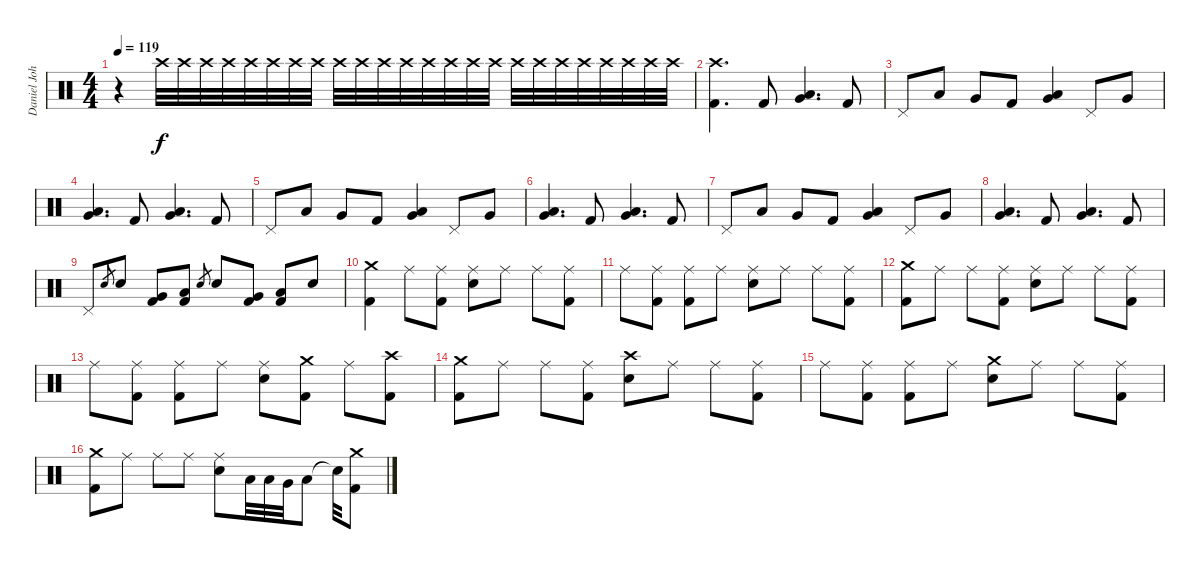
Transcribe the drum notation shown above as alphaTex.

\track ("Daniel John Erlandson (Drums)" "Daniel Joh") {instrument percussion}
\staff {score}
\articulation defaults
\ts (4 4)
\tempo 119
\clef neutral
\ks c
r.4{dy f volume 8} "Crash high (hit)".32 "Crash high (hit)".32 "Crash high (hit)".32 "Crash high (hit)".32 "Crash high (hit)".32 "Crash high (hit)".32 "Crash high (hit)".32 "Crash high (hit)".32 "Crash high (hit)".32 "Crash high (hit)".32 "Crash high (hit)".32 "Crash high (hit)".32 "Crash high (hit)".32 "Crash high (hit)".32 "Crash high (hit)".32 "Crash high (hit)".32 "Crash high (hit)".32 "Crash high (hit)".32 "Crash high (hit)".32 "Crash high (hit)".32 "Crash high (hit)".32 "Crash high (hit)".32 "Crash high (hit)".32 "Crash high (hit)".32 |
("Kick (hit) 2" "Crash high (hit)").4{d volume 16} "Kick (hit) 2".8 ("Low Floor Tom (hit)" "Very Low Tom (hit)").4{d} "Kick (hit) 2".8 |
"Pedal Hi-Hat (hit)".8 "Low Tom (hit)".8 "Very Low Tom (hit)".8 "Kick (hit) 2".8 ("Low Floor Tom (hit)" "Very Low Tom (hit)").4 "Pedal Hi-Hat (hit)".8 "Very Low Tom (hit)".8 |
("Low Floor Tom (hit)" "Very Low Tom (hit)").4{d} "Kick (hit) 2".8 ("Low Floor Tom (hit)" "Very Low Tom (hit)").4{d} "Kick (hit) 2".8 |
"Pedal Hi-Hat (hit)".8 "Low Tom (hit)".8 "Very Low Tom (hit)".8 "Kick (hit) 2".8 ("Low Floor Tom (hit)" "Very Low Tom (hit)").4 "Pedal Hi-Hat (hit)".8 "Very Low Tom (hit)".8 |
("Low Floor Tom (hit)" "Very Low Tom (hit)").4{d} "Kick (hit) 2".8 ("Low Floor Tom (hit)" "Very Low Tom (hit)").4{d} "Kick (hit) 2".8 |
"Pedal Hi-Hat (hit)".8 "Low Tom (hit)".8 "Very Low Tom (hit)".8 "Kick (hit) 2".8 ("Low Floor Tom (hit)" "Very Low Tom (hit)").4 "Pedal Hi-Hat (hit)".8 "Very Low Tom (hit)".8 |
("Low Floor Tom (hit)" "Very Low Tom (hit)").4{d} "Kick (hit) 2".8 ("Low Floor Tom (hit)" "Very Low Tom (hit)").4{d} "Kick (hit) 2".8 |
"Pedal Hi-Hat (hit)".8 "Snare (hit) 2".8{gr} "Snare (hit) 2".8 ("Very Low Tom (hit)" "Kick (hit) 2").8 ("Low Floor Tom (hit)" "Kick (hit) 2").8 "Snare (hit) 2".8{gr} "Snare (hit) 2".8 ("Very Low Tom (hit)" "Kick (hit) 2").8 ("Low Floor Tom (hit)" "Kick (hit) 2").8 "Snare (hit) 2".8 |
("Kick (hit) 2" "Crash medium (hit)").4 "Ride (middle)".8 ("Kick (hit) 2" "Ride (middle)").8 ("Snare (hit) 2" "Ride (middle)").8 "Ride (middle)".8 "Ride (middle)".8 ("Kick (hit) 2" "Ride (middle)").8 |
"Ride (middle)".8 ("Kick (hit) 2" "Ride (middle)").8 ("Kick (hit) 2" "Ride (middle)").8 "Ride (middle)".8 ("Snare (hit) 2" "Ride (middle)").8 "Ride (middle)".8 "Ride (middle)".8 ("Kick (hit) 2" "Ride (middle)").8 |
("Crash medium (hit)" "Kick (hit) 2").8 "Ride (middle)".8 "Ride (middle)".8 ("Kick (hit) 2" "Ride (middle)").8 ("Snare (hit) 2" "Ride (middle)").8 "Ride (middle)".8 "Ride (middle)".8 ("Kick (hit) 2" "Ride (middle)").8 |
"Ride (middle)".8 ("Kick (hit) 2" "Ride (middle)").8 ("Kick (hit) 2" "Ride (middle)").8 "Ride (middle)".8 ("Snare (hit) 2" "Ride (middle)").8 ("Kick (hit) 2" "Crash medium (hit)").8 "Ride (middle)".8 ("Kick (hit) 2" "Crash high (hit)").8 |
("Crash medium (hit)" "Kick (hit) 2").8 "Ride (middle)".8 "Ride (middle)".8 ("Kick (hit) 2" "Ride (middle)").8 ("Snare (hit) 2" "Crash high (hit)").8 "Ride (middle)".8 "Ride (middle)".8 ("Kick (hit) 2" "Ride (middle)").8 |
"Ride (middle)".8 ("Kick (hit) 2" "Ride (middle)").8 ("Kick (hit) 2" "Ride (middle)").8 "Ride (middle)".8 ("Snare (hit) 2" "Crash medium (hit)").8 "Ride (middle)".8 "Ride (middle)".8 ("Kick (hit) 2" "Ride (middle)").8 |
("Kick (hit) 2" "Crash medium (hit)").8 "Ride (middle)".8 "Ride (middle)".8 "Ride (middle)".8 ("Snare (hit) 2" "Ride (middle)").8 "Low Tom (hit)".32 "Low Tom (hit)".32 "Very Low Tom (hit)".32 "Low Floor Tom (hit)".8 "Snare (hit)"{t}.32 ("Kick (hit) 2" "Crash medium (hit)").8
